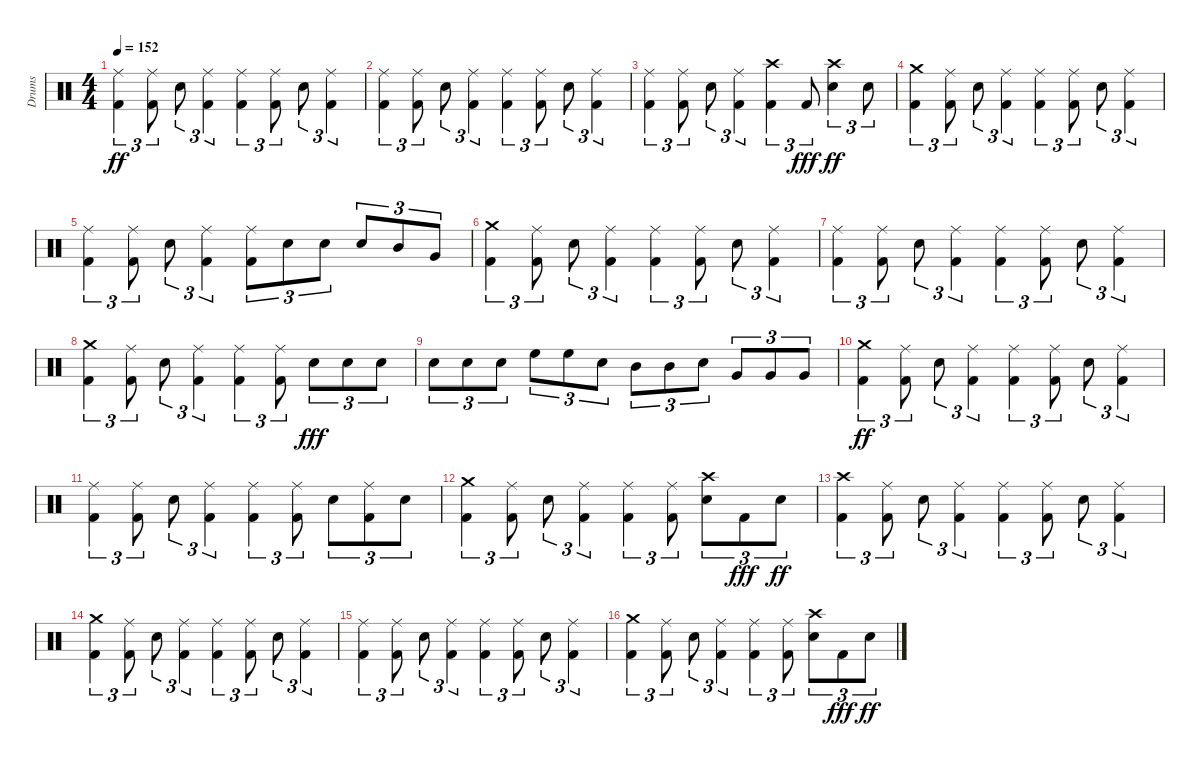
\track ("Drums" "Drums") {instrument percussion}
\staff {score}
\articulation defaults
\ts (4 4)
\tempo 152
\clef neutral
\ks c
("Kick (hit) 2" "Ride (middle)").4{tu (3 2) dy ff} ("Kick (hit) 2" "Ride (middle)").8{tu (3 2)} "Snare (hit) 2".8{tu (3 2)} ("Kick (hit) 2" "Ride (middle)").4{tu (3 2)} ("Kick (hit) 2" "Ride (middle)").4{tu (3 2)} ("Kick (hit) 2" "Ride (middle)").8{tu (3 2)} "Snare (hit) 2".8{tu (3 2)} ("Kick (hit) 2" "Ride (middle)").4{tu (3 2)} |
("Kick (hit) 2" "Ride (middle)").4{tu (3 2)} ("Kick (hit) 2" "Ride (middle)").8{tu (3 2)} "Snare (hit) 2".8{tu (3 2)} ("Kick (hit) 2" "Ride (middle)").4{tu (3 2)} ("Kick (hit) 2" "Ride (middle)").4{tu (3 2)} ("Kick (hit) 2" "Ride (middle)").8{tu (3 2)} "Snare (hit) 2".8{tu (3 2)} ("Kick (hit) 2" "Ride (middle)").4{tu (3 2)} |
("Kick (hit) 2" "Ride (middle)").4{tu (3 2)} ("Kick (hit) 2" "Ride (middle)").8{tu (3 2)} "Snare (hit) 2".8{tu (3 2)} ("Kick (hit) 2" "Ride (middle)").4{tu (3 2)} ("Kick (hit) 2" "Crash high (hit)").4{tu (3 2)} "Kick (hit) 2".8{tu (3 2) dy fff} ("Snare (hit) 2" "Crash high (hit)").4{tu (3 2) dy ff} "Snare (hit) 2".8{tu (3 2)} |
("Kick (hit) 2" "Crash medium (hit)").4{tu (3 2)} ("Kick (hit) 2" "Ride (middle)").8{tu (3 2)} "Snare (hit) 2".8{tu (3 2)} ("Kick (hit) 2" "Ride (middle)").4{tu (3 2)} ("Kick (hit) 2" "Ride (middle)").4{tu (3 2)} ("Kick (hit) 2" "Ride (middle)").8{tu (3 2)} "Snare (hit) 2".8{tu (3 2)} ("Kick (hit) 2" "Ride (middle)").4{tu (3 2)} |
("Kick (hit) 2" "Ride (middle)").4{tu (3 2)} ("Kick (hit) 2" "Ride (middle)").8{tu (3 2)} "Snare (hit) 2".8{tu (3 2)} ("Kick (hit) 2" "Ride (middle)").4{tu (3 2)} ("Kick (hit) 2" "Ride (middle)").8{tu (3 2)} "Snare (hit) 2".8{tu (3 2)} "Snare (hit) 2".8{tu (3 2)} "Snare (hit) 2".8{tu (3 2)} "Mid Tom (hit)".8{tu (3 2)} "Very Low Tom (hit)".8{tu (3 2)} |
("Kick (hit) 2" "Crash medium (hit)").4{tu (3 2)} ("Kick (hit) 2" "Ride (middle)").8{tu (3 2)} "Snare (hit) 2".8{tu (3 2)} ("Kick (hit) 2" "Ride (middle)").4{tu (3 2)} ("Kick (hit) 2" "Ride (middle)").4{tu (3 2)} ("Kick (hit) 2" "Ride (middle)").8{tu (3 2)} "Snare (hit) 2".8{tu (3 2)} ("Kick (hit) 2" "Ride (middle)").4{tu (3 2)} |
("Kick (hit) 2" "Ride (middle)").4{tu (3 2)} ("Kick (hit) 2" "Ride (middle)").8{tu (3 2)} "Snare (hit) 2".8{tu (3 2)} ("Kick (hit) 2" "Ride (middle)").4{tu (3 2)} ("Kick (hit) 2" "Ride (middle)").4{tu (3 2)} ("Kick (hit) 2" "Ride (middle)").8{tu (3 2)} "Snare (hit) 2".8{tu (3 2)} ("Kick (hit) 2" "Ride (middle)").4{tu (3 2)} |
("Kick (hit) 2" "Crash medium (hit)").4{tu (3 2)} ("Kick (hit) 2" "Ride (middle)").8{tu (3 2)} "Snare (hit) 2".8{tu (3 2)} ("Kick (hit) 2" "Ride (middle)").4{tu (3 2)} ("Kick (hit) 2" "Ride (middle)").4{tu (3 2)} ("Kick (hit) 2" "Ride (middle)").8{tu (3 2)} "Snare (hit) 2".8{tu (3 2) dy fff} "Snare (hit) 2".8{tu (3 2)} "Snare (hit) 2".8{tu (3 2)} |
"Snare (hit) 2".8{tu (3 2)} "Snare (hit) 2".8{tu (3 2)} "Snare (hit) 2".8{tu (3 2)} "High Floor Tom (hit)".8{tu (3 2)} "High Floor Tom (hit)".8{tu (3 2)} "Snare (hit) 2".8{tu (3 2)} "Mid Tom (hit)".8{tu (3 2)} "Mid Tom (hit)".8{tu (3 2)} "Snare (hit) 2".8{tu (3 2)} "Very Low Tom (hit)".8{tu (3 2)} "Very Low Tom (hit)".8{tu (3 2)} "Very Low Tom (hit)".8{tu (3 2)} |
("Kick (hit) 2" "Crash medium (hit)").4{tu (3 2) dy ff} ("Kick (hit) 2" "Ride (middle)").8{tu (3 2)} "Snare (hit) 2".8{tu (3 2)} ("Kick (hit) 2" "Ride (middle)").4{tu (3 2)} ("Kick (hit) 2" "Ride (middle)").4{tu (3 2)} ("Kick (hit) 2" "Ride (middle)").8{tu (3 2)} "Snare (hit) 2".8{tu (3 2)} ("Kick (hit) 2" "Ride (middle)").4{tu (3 2)} |
("Kick (hit) 2" "Ride (middle)").4{tu (3 2)} ("Kick (hit) 2" "Ride (middle)").8{tu (3 2)} "Snare (hit) 2".8{tu (3 2)} ("Kick (hit) 2" "Ride (middle)").4{tu (3 2)} ("Kick (hit) 2" "Ride (middle)").4{tu (3 2)} ("Kick (hit) 2" "Ride (middle)").8{tu (3 2)} "Snare (hit) 2".8{tu (3 2)} ("Kick (hit) 2" "Ride (middle)").8{tu (3 2)} "Snare (hit) 2".8{tu (3 2)} |
("Kick (hit) 2" "Crash medium (hit)").4{tu (3 2)} ("Kick (hit) 2" "Ride (middle)").8{tu (3 2)} "Snare (hit) 2".8{tu (3 2)} ("Kick (hit) 2" "Ride (middle)").4{tu (3 2)} ("Kick (hit) 2" "Ride (middle)").4{tu (3 2)} ("Kick (hit) 2" "Ride (middle)").8{tu (3 2)} ("Snare (hit) 2" "Crash high (hit)").8{tu (3 2)} "Kick (hit) 2".8{tu (3 2) dy fff} "Snare (hit) 2".8{tu (3 2) dy ff} |
("Kick (hit) 2" "Crash high (hit)").4{tu (3 2)} ("Kick (hit) 2" "Ride (middle)").8{tu (3 2)} "Snare (hit) 2".8{tu (3 2)} ("Kick (hit) 2" "Ride (middle)").4{tu (3 2)} ("Kick (hit) 2" "Ride (middle)").4{tu (3 2)} ("Kick (hit) 2" "Ride (middle)").8{tu (3 2)} "Snare (hit) 2".8{tu (3 2)} ("Kick (hit) 2" "Ride (middle)").4{tu (3 2)} |
("Kick (hit) 2" "Crash medium (hit)").4{tu (3 2)} ("Kick (hit) 2" "Ride (middle)").8{tu (3 2)} "Snare (hit) 2".8{tu (3 2)} ("Kick (hit) 2" "Ride (middle)").4{tu (3 2)} ("Kick (hit) 2" "Ride (middle)").4{tu (3 2)} ("Kick (hit) 2" "Ride (middle)").8{tu (3 2)} "Snare (hit) 2".8{tu (3 2)} ("Kick (hit) 2" "Ride (middle)").4{tu (3 2)} |
("Kick (hit) 2" "Ride (middle)").4{tu (3 2)} ("Kick (hit) 2" "Ride (middle)").8{tu (3 2)} "Snare (hit) 2".8{tu (3 2)} ("Kick (hit) 2" "Ride (middle)").4{tu (3 2)} ("Kick (hit) 2" "Ride (middle)").4{tu (3 2)} ("Kick (hit) 2" "Ride (middle)").8{tu (3 2)} "Snare (hit) 2".8{tu (3 2)} ("Kick (hit) 2" "Ride (middle)").4{tu (3 2)} |
("Kick (hit) 2" "Crash medium (hit)").4{tu (3 2)} ("Kick (hit) 2" "Ride (middle)").8{tu (3 2)} "Snare (hit) 2".8{tu (3 2)} ("Kick (hit) 2" "Ride (middle)").4{tu (3 2)} ("Kick (hit) 2" "Ride (middle)").4{tu (3 2)} ("Kick (hit) 2" "Ride (middle)").8{tu (3 2)} ("Snare (hit) 2" "Crash high (hit)").8{tu (3 2)} "Kick (hit) 2".8{tu (3 2) dy fff} "Snare (hit) 2".8{tu (3 2) dy ff}
